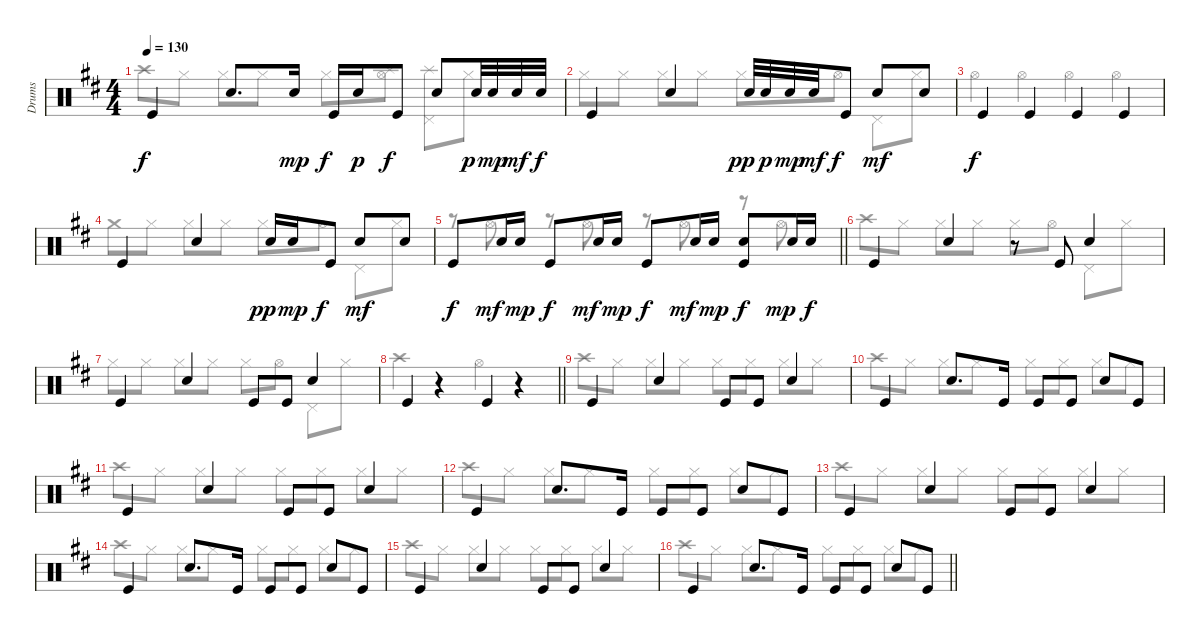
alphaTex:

\track ("Drums" "Drums") {instrument percussion}
\staff {score}
\articulation defaults
\voice
\ts (4 4)
\tempo 130
\clef neutral
\ks d "Kick (hit)".4{dy f} "Snare (hit) 2".8{d} "Snare (hit) 2".16{dy mp} "Kick (hit)".16{dy f} "Snare (hit) 2".16{dy p} "Kick (hit)".8{dy f} "Snare (hit) 2".8 "Snare (hit) 2".32{dy p} "Snare (hit) 2".32{dy mp} "Snare (hit) 2".32{dy mf} "Snare (hit) 2".32{dy f}
|
"Kick (hit)".4 "Snare (hit) 2".4 "Snare (hit) 2".32{dy pp} "Snare (hit) 2".32{dy p} "Snare (hit) 2".32{dy mp} "Snare (hit) 2".32{dy mf} "Kick (hit)".8{dy f} "Snare (hit) 2".8{dy mf} "Snare (hit) 2".8 |
"Kick (hit)".4{dy f} "Kick (hit)".4 "Kick (hit)".4 "Kick (hit)".4 |
"Kick (hit)".4 "Snare (hit) 2".4 "Snare (hit) 2".16{dy pp} "Snare (hit) 2".16{dy mp} "Kick (hit)".8{dy f} "Snare (hit) 2".8{dy mf} "Snare (hit) 2".8 |
\barLineRight lightlight "Kick (hit)".8{dy f} "Snare (hit) 2".16{dy mf} "Snare (hit) 2".16{dy mp} "Kick (hit)".8{dy f} "Snare (hit) 2".16{dy mf} "Snare (hit) 2".16{dy mp} "Kick (hit)".8{dy f} "Snare (hit) 2".16{dy mf} "Snare (hit) 2".16{dy mp}
("Snare (hit) 2" "Kick (hit)").8{dy f} "Snare (hit) 2".16{dy mp} "Snare (hit) 2".16{dy f} |
"Kick (hit)".4 "Snare (hit) 2".4 r.8 "Kick (hit)".8 "Snare (hit) 2".4 |
"Kick (hit)".4 "Snare (hit) 2".4 "Kick (hit)".8 "Kick (hit)".8 "Snare (hit) 2".4 |
\barLineRight lightlight "Kick (hit)".4
r.4 "Kick (hit)".4 r.4 |
"Kick (hit)".4 "Snare (hit) 2".4 "Kick (hit)".8 "Kick (hit)".8 "Snare (hit) 2".4 |
"Kick (hit)".4 "Snare (hit) 2".8{d} "Kick (hit)".16 "Kick (hit)".8 "Kick (hit)".8 "Snare (hit) 2".8 "Kick (hit)".8 |
"Kick (hit)".4 "Snare (hit) 2".4 "Kick (hit)".8 "Kick (hit)".8 "Snare (hit) 2".4 |
"Kick (hit)".4 "Snare (hit) 2".8{d} "Kick (hit)".16 "Kick (hit)".8 "Kick (hit)".8 "Snare (hit) 2".8 "Kick (hit)".8 |
"Kick (hit)".4 "Snare (hit) 2".4 "Kick (hit)".8 "Kick (hit)".8 "Snare (hit) 2".4 |
"Kick (hit)".4 "Snare (hit) 2".8{d} "Kick (hit)".16 "Kick (hit)".8 "Kick (hit)".8 "Snare (hit) 2".8 "Kick (hit)".8 |
"Kick (hit)".4 "Snare (hit) 2".4 "Kick (hit)".8 "Kick (hit)".8 "Snare (hit) 2".4 |
\barLineRight lightlight "Kick (hit)".4 "Snare (hit) 2".8{d} "Kick (hit)".16 "Kick (hit)".8 "Kick (hit)".8 "Snare (hit) 2".8 "Kick (hit)".8
\voice
\clef neutral
\ottava regular
\simile none
\ks d "Crash high (hit)".8{dy f} "Hi-Hat (closed)".8 "Hi-Hat (closed)".8 "Hi-Hat (closed)".8 "Hi-Hat (closed)".8
("Hi-Hat (open)" "Splash (hit)").8 ("Pedal Hi-Hat (hit)" "Splash (hit)").8 "Hi-Hat (closed)".8 |
"Hi-Hat (closed)".8 "Hi-Hat (closed)".8 "Hi-Hat (closed)".8 "Hi-Hat (closed)".8 "Hi-Hat (closed)".8 "Hi-Hat (open)".8 "Pedal Hi-Hat (hit)".8 "Hi-Hat (closed)".8 |
"Hi-Hat (open)".4 "Hi-Hat (open)".4 "Hi-Hat (open)".4 "Hi-Hat (open)".4 |
"Crash medium (hit)".8 "Hi-Hat (closed)".8 "Hi-Hat (closed)".8 "Hi-Hat (closed)".8 "Hi-Hat (closed)".8 "Hi-Hat (open)".8 "Pedal Hi-Hat (hit)".8 "Hi-Hat (closed)".8 |
\barLineRight lightlight
r.8 "Hi-Hat (open)".8 r.8 "Hi-Hat (open)".8 r.8 "Hi-Hat (open)".8 r.8 "Hi-Hat (open)".8 |
"Crash high (hit)".8 "Hi-Hat (closed)".8 "Hi-Hat (closed)".8 "Hi-Hat (closed)".8 "Hi-Hat (closed)".8 "Hi-Hat (open)".8 "Pedal Hi-Hat (hit)".8 "Hi-Hat (closed)".8 |
"Hi-Hat (closed)".8 "Hi-Hat (closed)".8 "Hi-Hat (closed)".8 "Hi-Hat (closed)".8 "Hi-Hat (closed)".8 "Hi-Hat (open)".8 "Pedal Hi-Hat (hit)".8 "Hi-Hat (closed)".8 |
\barLineRight lightlight "Crash high (hit)".4
r.4 "Hi-Hat (open)".4 r.4 |
"Crash high (hit)".8 "Hi-Hat (closed)".8 "Hi-Hat (closed)".8 "Hi-Hat (closed)".8 "Hi-Hat (closed)".8 "Hi-Hat (closed)".8 "Hi-Hat (closed)".8 "Hi-Hat (closed)".8 |
"Crash high (hit)".8 "Hi-Hat (closed)".8 "Hi-Hat (closed)".8 "Hi-Hat (closed)".8 "Hi-Hat (closed)".8 "Hi-Hat (closed)".8 "Hi-Hat (closed)".8 "Hi-Hat (closed)".8 |
"Crash high (hit)".8 "Hi-Hat (closed)".8 "Hi-Hat (closed)".8 "Hi-Hat (closed)".8 "Hi-Hat (closed)".8 "Hi-Hat (closed)".8 "Hi-Hat (closed)".8 "Hi-Hat (closed)".8 |
"Crash high (hit)".8 "Hi-Hat (closed)".8 "Hi-Hat (closed)".8 "Hi-Hat (closed)".8 "Hi-Hat (closed)".8 "Hi-Hat (closed)".8 "Hi-Hat (closed)".8 "Hi-Hat (closed)".8 |
"Crash high (hit)".8 "Hi-Hat (closed)".8 "Hi-Hat (closed)".8 "Hi-Hat (closed)".8 "Hi-Hat (closed)".8 "Hi-Hat (closed)".8 "Hi-Hat (closed)".8 "Hi-Hat (closed)".8 |
"Crash high (hit)".8 "Hi-Hat (closed)".8 "Hi-Hat (closed)".8 "Hi-Hat (closed)".8 "Hi-Hat (closed)".8 "Hi-Hat (closed)".8 "Hi-Hat (closed)".8 "Hi-Hat (closed)".8 |
"Crash high (hit)".8 "Hi-Hat (closed)".8 "Hi-Hat (closed)".8 "Hi-Hat (closed)".8 "Hi-Hat (closed)".8 "Hi-Hat (closed)".8 "Hi-Hat (closed)".8 "Hi-Hat (closed)".8 |
\barLineRight lightlight "Crash high (hit)".8 "Hi-Hat (closed)".8 "Hi-Hat (closed)".8 "Hi-Hat (closed)".8 "Hi-Hat (closed)".8 "Hi-Hat (closed)".8 "Hi-Hat (closed)".8 "Hi-Hat (closed)".8
